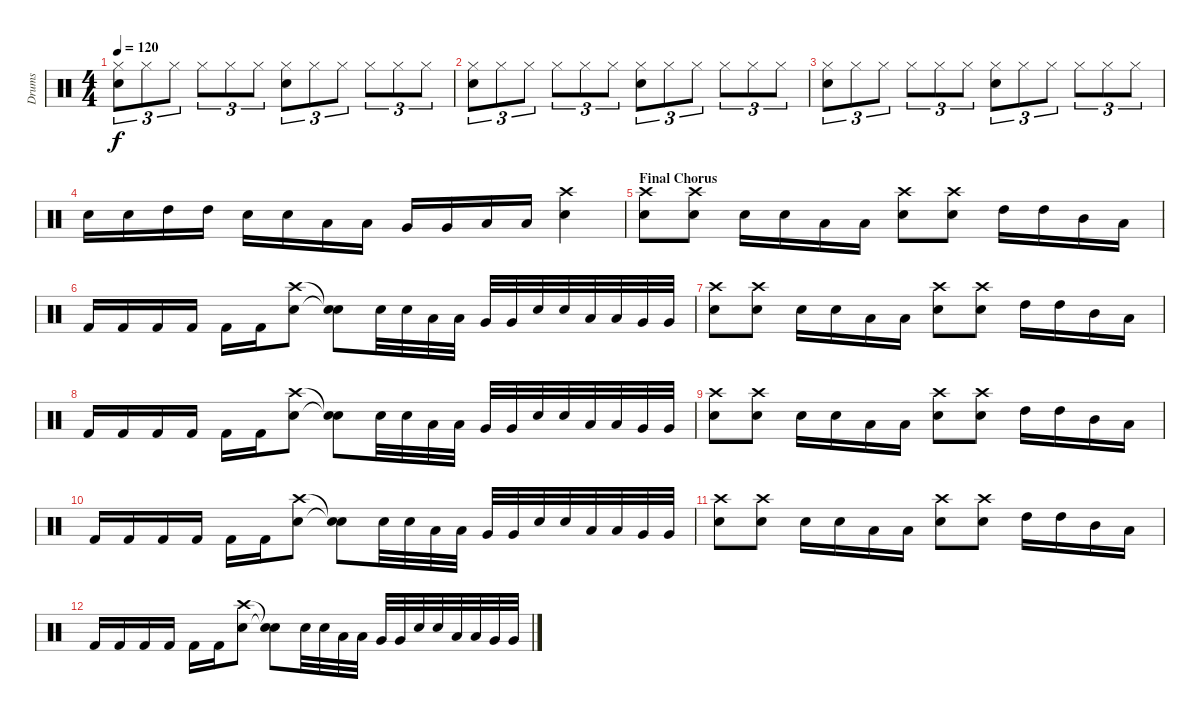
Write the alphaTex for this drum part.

\track ("Drums" "Drums") {instrument percussion}
\staff {score}
\articulation defaults
\ts (4 4)
\tempo 120
\clef neutral
\ks c
("Hi-Hat (closed)" "Electric Snare (hit)").8{tu (3 2) dy f} "Hi-Hat (closed)".8{tu (3 2)} "Hi-Hat (closed)".8{tu (3 2)} "Hi-Hat (closed)".8{tu (3 2)} "Hi-Hat (closed)".8{tu (3 2)} "Hi-Hat (closed)".8{tu (3 2)} ("Hi-Hat (closed)" "Electric Snare (hit)").8{tu (3 2)} "Hi-Hat (closed)".8{tu (3 2)} "Hi-Hat (closed)".8{tu (3 2)} "Hi-Hat (closed)".8{tu (3 2)} "Hi-Hat (closed)".8{tu (3 2)} "Hi-Hat (closed)".8{tu (3 2)} |
("Hi-Hat (closed)" "Electric Snare (hit)").8{tu (3 2)} "Hi-Hat (closed)".8{tu (3 2)} "Hi-Hat (closed)".8{tu (3 2)} "Hi-Hat (closed)".8{tu (3 2)} "Hi-Hat (closed)".8{tu (3 2)} "Hi-Hat (closed)".8{tu (3 2)} ("Hi-Hat (closed)" "Electric Snare (hit)").8{tu (3 2)} "Hi-Hat (closed)".8{tu (3 2)} "Hi-Hat (closed)".8{tu (3 2)} "Hi-Hat (closed)".8{tu (3 2)} "Hi-Hat (closed)".8{tu (3 2)} "Hi-Hat (closed)".8{tu (3 2)} |
("Hi-Hat (closed)" "Electric Snare (hit)").8{tu (3 2)} "Hi-Hat (closed)".8{tu (3 2)} "Hi-Hat (closed)".8{tu (3 2)} "Hi-Hat (closed)".8{tu (3 2)} "Hi-Hat (closed)".8{tu (3 2)} "Hi-Hat (closed)".8{tu (3 2)} ("Hi-Hat (closed)" "Electric Snare (hit)").8{tu (3 2)} "Hi-Hat (closed)".8{tu (3 2)} "Hi-Hat (closed)".8{tu (3 2)} "Hi-Hat (closed)".8{tu (3 2)} "Hi-Hat (closed)".8{tu (3 2)} "Hi-Hat (closed)".8{tu (3 2)} |
"Electric Snare (hit)".16 "Electric Snare (hit)".16 "High Tom (hit)".16 "High Tom (hit)".16 "Electric Snare (hit)".16 "Electric Snare (hit)".16 "Low Tom (hit)".16 "Low Tom (hit)".16 "Very Low Tom (hit)".16 "Very Low Tom (hit)".16 "Low Floor Tom (hit)".16 "Low Floor Tom (hit)".16 ("Crash high (hit)" "Electric Snare (hit)").4 |
\section ("" "Final Chorus")
("Crash high (hit)" "Electric Snare (hit)").8 ("Crash high (hit)" "Electric Snare (hit)").8 "Electric Snare (hit)".16 "Electric Snare (hit)".16 "Low Tom (hit)".16 "Low Tom (hit)".16 ("Crash high (hit)" "Electric Snare (hit)").8 ("Crash high (hit)" "Electric Snare (hit)").8 "High Tom (hit)".16 "High Tom (hit)".16 "Mid Tom (hit)".16 "Low Tom (hit)".16 |
"Kick (hit) 2".16 "Kick (hit) 2".16 "Kick (hit) 2".16 "Kick (hit) 2".16 "Kick (hit) 2".16 "Kick (hit) 2".16 ("Crash high (hit)" "Electric Snare (hit)").8 ("Snare (hit)"{t} "Snare (hit)"{t}).8 "Electric Snare (hit)".32 "Electric Snare (hit)".32 "Low Tom (hit)".32 "Low Tom (hit)".32 "Very Low Tom (hit)".32 "Very Low Tom (hit)".32 "Electric Snare (hit)".32 "Electric Snare (hit)".32 "Low Tom (hit)".32 "Low Tom (hit)".32 "Very Low Tom (hit)".32 "Very Low Tom (hit)".32 |
("Crash high (hit)" "Electric Snare (hit)").8 ("Crash high (hit)" "Electric Snare (hit)").8 "Electric Snare (hit)".16 "Electric Snare (hit)".16 "Low Tom (hit)".16 "Low Tom (hit)".16 ("Crash high (hit)" "Electric Snare (hit)").8 ("Crash high (hit)" "Electric Snare (hit)").8 "High Tom (hit)".16 "High Tom (hit)".16 "Mid Tom (hit)".16 "Low Tom (hit)".16 |
"Kick (hit) 2".16 "Kick (hit) 2".16 "Kick (hit) 2".16 "Kick (hit) 2".16 "Kick (hit) 2".16 "Kick (hit) 2".16 ("Crash high (hit)" "Electric Snare (hit)").8 ("Snare (hit)"{t} "Snare (hit)"{t}).8 "Electric Snare (hit)".32 "Electric Snare (hit)".32 "Low Tom (hit)".32 "Low Tom (hit)".32 "Very Low Tom (hit)".32 "Very Low Tom (hit)".32 "Electric Snare (hit)".32 "Electric Snare (hit)".32 "Low Tom (hit)".32 "Low Tom (hit)".32 "Very Low Tom (hit)".32 "Very Low Tom (hit)".32 |
("Crash high (hit)" "Electric Snare (hit)").8{volume 0} ("Crash high (hit)" "Electric Snare (hit)").8 "Electric Snare (hit)".16 "Electric Snare (hit)".16 "Low Tom (hit)".16 "Low Tom (hit)".16 ("Crash high (hit)" "Electric Snare (hit)").8 ("Crash high (hit)" "Electric Snare (hit)").8 "High Tom (hit)".16 "High Tom (hit)".16 "Mid Tom (hit)".16 "Low Tom (hit)".16 |
"Kick (hit) 2".16 "Kick (hit) 2".16 "Kick (hit) 2".16 "Kick (hit) 2".16 "Kick (hit) 2".16 "Kick (hit) 2".16 ("Crash high (hit)" "Electric Snare (hit)").8 ("Snare (hit)"{t} "Snare (hit)"{t}).8 "Electric Snare (hit)".32 "Electric Snare (hit)".32 "Low Tom (hit)".32 "Low Tom (hit)".32 "Very Low Tom (hit)".32 "Very Low Tom (hit)".32 "Electric Snare (hit)".32 "Electric Snare (hit)".32 "Low Tom (hit)".32 "Low Tom (hit)".32 "Very Low Tom (hit)".32 "Very Low Tom (hit)".32 |
("Crash high (hit)" "Electric Snare (hit)").8 ("Crash high (hit)" "Electric Snare (hit)").8 "Electric Snare (hit)".16 "Electric Snare (hit)".16 "Low Tom (hit)".16 "Low Tom (hit)".16 ("Crash high (hit)" "Electric Snare (hit)").8 ("Crash high (hit)" "Electric Snare (hit)").8 "High Tom (hit)".16 "High Tom (hit)".16 "Mid Tom (hit)".16 "Low Tom (hit)".16 |
"Kick (hit) 2".16 "Kick (hit) 2".16 "Kick (hit) 2".16 "Kick (hit) 2".16 "Kick (hit) 2".16 "Kick (hit) 2".16 ("Crash high (hit)" "Electric Snare (hit)").8 ("Snare (hit)"{t} "Snare (hit)"{t}).8 "Electric Snare (hit)".32 "Electric Snare (hit)".32 "Low Tom (hit)".32 "Low Tom (hit)".32 "Very Low Tom (hit)".32 "Very Low Tom (hit)".32 "Electric Snare (hit)".32 "Electric Snare (hit)".32 "Low Tom (hit)".32 "Low Tom (hit)".32 "Very Low Tom (hit)".32 "Very Low Tom (hit)".32
